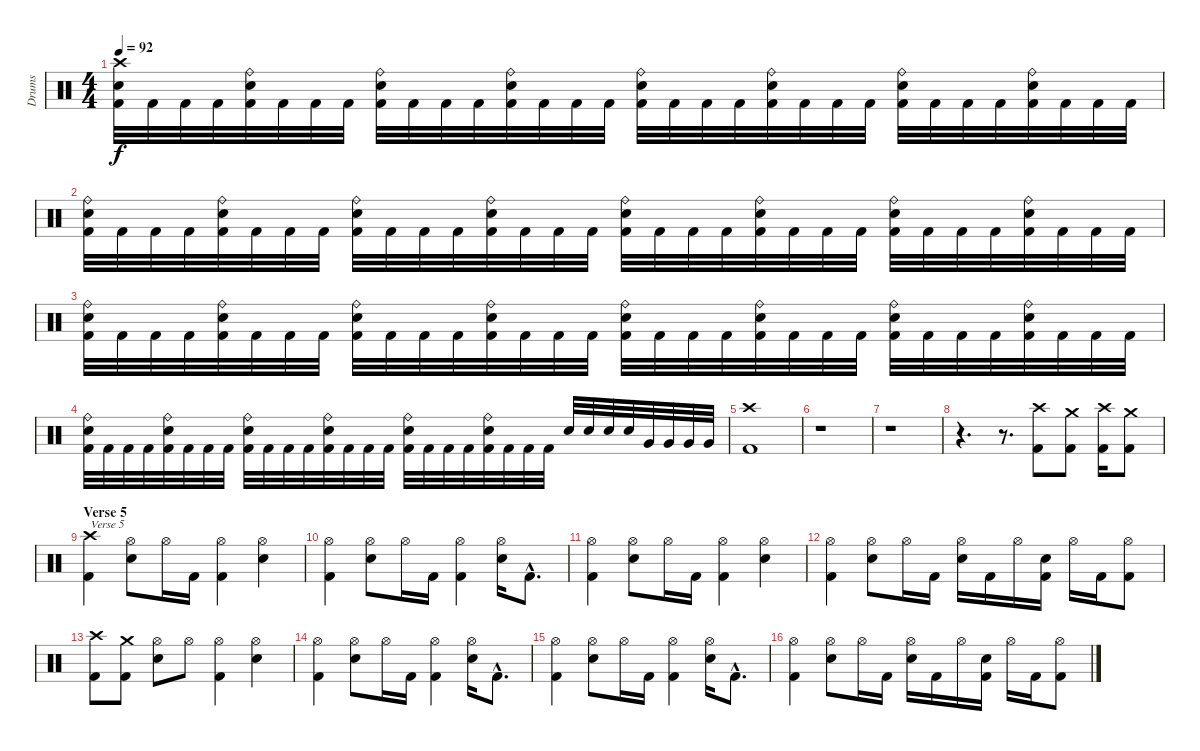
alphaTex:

\track ("Drums" "Drums") {instrument percussion}
\staff {score}
\articulation defaults
\ts (4 4)
\tempo 92
\clef neutral
\ks c
("Crash high (hit)" "Electric Snare (hit)" "Kick (hit) 2").32{dy f} "Kick (hit) 2".32 "Kick (hit) 2".32 "Kick (hit) 2".32 ("Ride (bell)" "Electric Snare (hit)" "Kick (hit) 2").32 "Kick (hit) 2".32 "Kick (hit) 2".32 "Kick (hit) 2".32 ("Ride (bell)" "Electric Snare (hit)" "Kick (hit) 2").32 "Kick (hit) 2".32 "Kick (hit) 2".32 "Kick (hit) 2".32 ("Ride (bell)" "Electric Snare (hit)" "Kick (hit) 2").32 "Kick (hit) 2".32 "Kick (hit) 2".32 "Kick (hit) 2".32 ("Ride (bell)" "Electric Snare (hit)" "Kick (hit) 2").32 "Kick (hit) 2".32 "Kick (hit) 2".32 "Kick (hit) 2".32 ("Ride (bell)" "Electric Snare (hit)" "Kick (hit) 2").32 "Kick (hit) 2".32 "Kick (hit) 2".32 "Kick (hit) 2".32 ("Ride (bell)" "Electric Snare (hit)" "Kick (hit) 2").32 "Kick (hit) 2".32 "Kick (hit) 2".32 "Kick (hit) 2".32 ("Ride (bell)" "Electric Snare (hit)" "Kick (hit) 2").32 "Kick (hit) 2".32 "Kick (hit) 2".32 "Kick (hit) 2".32 |
("Ride (bell)" "Electric Snare (hit)" "Kick (hit) 2").32 "Kick (hit) 2".32 "Kick (hit) 2".32 "Kick (hit) 2".32 ("Ride (bell)" "Electric Snare (hit)" "Kick (hit) 2").32 "Kick (hit) 2".32 "Kick (hit) 2".32 "Kick (hit) 2".32 ("Ride (bell)" "Electric Snare (hit)" "Kick (hit) 2").32 "Kick (hit) 2".32 "Kick (hit) 2".32 "Kick (hit) 2".32 ("Ride (bell)" "Electric Snare (hit)" "Kick (hit) 2").32 "Kick (hit) 2".32 "Kick (hit) 2".32 "Kick (hit) 2".32 ("Ride (bell)" "Electric Snare (hit)" "Kick (hit) 2").32 "Kick (hit) 2".32 "Kick (hit) 2".32 "Kick (hit) 2".32 ("Ride (bell)" "Electric Snare (hit)" "Kick (hit) 2").32 "Kick (hit) 2".32 "Kick (hit) 2".32 "Kick (hit) 2".32 ("Ride (bell)" "Electric Snare (hit)" "Kick (hit) 2").32 "Kick (hit) 2".32 "Kick (hit) 2".32 "Kick (hit) 2".32 ("Ride (bell)" "Electric Snare (hit)" "Kick (hit) 2").32 "Kick (hit) 2".32 "Kick (hit) 2".32 "Kick (hit) 2".32 |
("Ride (bell)" "Electric Snare (hit)" "Kick (hit) 2").32 "Kick (hit) 2".32 "Kick (hit) 2".32 "Kick (hit) 2".32 ("Ride (bell)" "Electric Snare (hit)" "Kick (hit) 2").32 "Kick (hit) 2".32 "Kick (hit) 2".32 "Kick (hit) 2".32 ("Ride (bell)" "Electric Snare (hit)" "Kick (hit) 2").32 "Kick (hit) 2".32 "Kick (hit) 2".32 "Kick (hit) 2".32 ("Ride (bell)" "Electric Snare (hit)" "Kick (hit) 2").32 "Kick (hit) 2".32 "Kick (hit) 2".32 "Kick (hit) 2".32 ("Ride (bell)" "Electric Snare (hit)" "Kick (hit) 2").32 "Kick (hit) 2".32 "Kick (hit) 2".32 "Kick (hit) 2".32 ("Ride (bell)" "Electric Snare (hit)" "Kick (hit) 2").32 "Kick (hit) 2".32 "Kick (hit) 2".32 "Kick (hit) 2".32 ("Ride (bell)" "Electric Snare (hit)" "Kick (hit) 2").32 "Kick (hit) 2".32 "Kick (hit) 2".32 "Kick (hit) 2".32 ("Ride (bell)" "Electric Snare (hit)" "Kick (hit) 2").32 "Kick (hit) 2".32 "Kick (hit) 2".32 "Kick (hit) 2".32 |
("Ride (bell)" "Electric Snare (hit)" "Kick (hit) 2").32 "Kick (hit) 2".32 "Kick (hit) 2".32 "Kick (hit) 2".32 ("Ride (bell)" "Electric Snare (hit)" "Kick (hit) 2").32 "Kick (hit) 2".32 "Kick (hit) 2".32 "Kick (hit) 2".32 ("Ride (bell)" "Electric Snare (hit)" "Kick (hit) 2").32 "Kick (hit) 2".32 "Kick (hit) 2".32 "Kick (hit) 2".32 ("Ride (bell)" "Electric Snare (hit)" "Kick (hit) 2").32 "Kick (hit) 2".32 "Kick (hit) 2".32 "Kick (hit) 2".32 ("Ride (bell)" "Electric Snare (hit)" "Kick (hit) 2").32 "Kick (hit) 2".32 "Kick (hit) 2".32 "Kick (hit) 2".32 ("Ride (bell)" "Electric Snare (hit)" "Kick (hit) 2").32 "Kick (hit) 2".32 "Kick (hit) 2".32 "Kick (hit) 2".32 "Electric Snare (hit)".32 "Electric Snare (hit)".32 "Electric Snare (hit)".32 "Electric Snare (hit)".32 "Very Low Tom (hit)".32 "Very Low Tom (hit)".32 "Very Low Tom (hit)".32 "Very Low Tom (hit)".32 |
("Crash high (hit)" "Kick (hit) 2").1 |
r.1 |
r.1 |
r.4{d} r.8{d} ("Crash high (hit)" "Kick (hit) 2").8 ("Crash medium (hit)" "Kick (hit) 2").8 ("Crash high (hit)" "Kick (hit) 2").16 ("Crash medium (hit)" "Kick (hit) 2").8 |
\section ("" "Verse 5")
("Crash high (hit)" "Kick (hit) 2").4{txt "Verse 5"} ("Hi-Hat (open)" "Electric Snare (hit)").8 "Hi-Hat (open)".16 "Kick (hit) 2".16 ("Hi-Hat (open)" "Kick (hit) 2").4 ("Hi-Hat (open)" "Electric Snare (hit)").4 |
("Hi-Hat (open)" "Kick (hit) 2").4 ("Hi-Hat (open)" "Electric Snare (hit)").8 "Hi-Hat (open)".16 "Kick (hit) 2".16 ("Hi-Hat (open)" "Kick (hit) 2").4 ("Hi-Hat (open)" "Electric Snare (hit)").16 "Kick (hit) 2"{hac}.8{d} |
("Hi-Hat (open)" "Kick (hit) 2").4 ("Hi-Hat (open)" "Electric Snare (hit)").8 "Hi-Hat (open)".16 "Kick (hit) 2".16 ("Hi-Hat (open)" "Kick (hit) 2").4 ("Hi-Hat (open)" "Electric Snare (hit)").4 |
("Hi-Hat (open)" "Kick (hit) 2").4 ("Hi-Hat (open)" "Electric Snare (hit)").8 "Hi-Hat (open)".16 "Kick (hit) 2".16 ("Hi-Hat (open)" "Electric Snare (hit)").16 "Kick (hit) 2".16 "Hi-Hat (open)".16 ("Electric Snare (hit)" "Kick (hit) 2").16 "Hi-Hat (open)".16 "Kick (hit) 2".16 ("Hi-Hat (open)" "Kick (hit) 2").8 |
("Crash high (hit)" "Kick (hit) 2").8 ("Crash medium (hit)" "Kick (hit) 2").8 ("Hi-Hat (open)" "Electric Snare (hit)").8 "Hi-Hat (open)".8 ("Hi-Hat (open)" "Kick (hit) 2").4 ("Hi-Hat (open)" "Electric Snare (hit)").4 |
("Hi-Hat (open)" "Kick (hit) 2").4 ("Hi-Hat (open)" "Electric Snare (hit)").8 "Hi-Hat (open)".16 "Kick (hit) 2".16 ("Hi-Hat (open)" "Kick (hit) 2").4 ("Hi-Hat (open)" "Electric Snare (hit)").16 "Kick (hit) 2"{hac}.8{d} |
("Hi-Hat (open)" "Kick (hit) 2").4 ("Hi-Hat (open)" "Electric Snare (hit)").8 "Hi-Hat (open)".16 "Kick (hit) 2".16 ("Hi-Hat (open)" "Kick (hit) 2").4 ("Hi-Hat (open)" "Electric Snare (hit)").16 "Kick (hit) 2"{hac}.8{d} |
("Hi-Hat (open)" "Kick (hit) 2").4 ("Hi-Hat (open)" "Electric Snare (hit)").8 "Hi-Hat (open)".16 "Kick (hit) 2".16 ("Hi-Hat (open)" "Electric Snare (hit)").16 "Kick (hit) 2".16 "Hi-Hat (open)".16 ("Electric Snare (hit)" "Kick (hit) 2").16 "Hi-Hat (open)".16 "Kick (hit) 2".16 ("Hi-Hat (open)" "Kick (hit) 2").8
